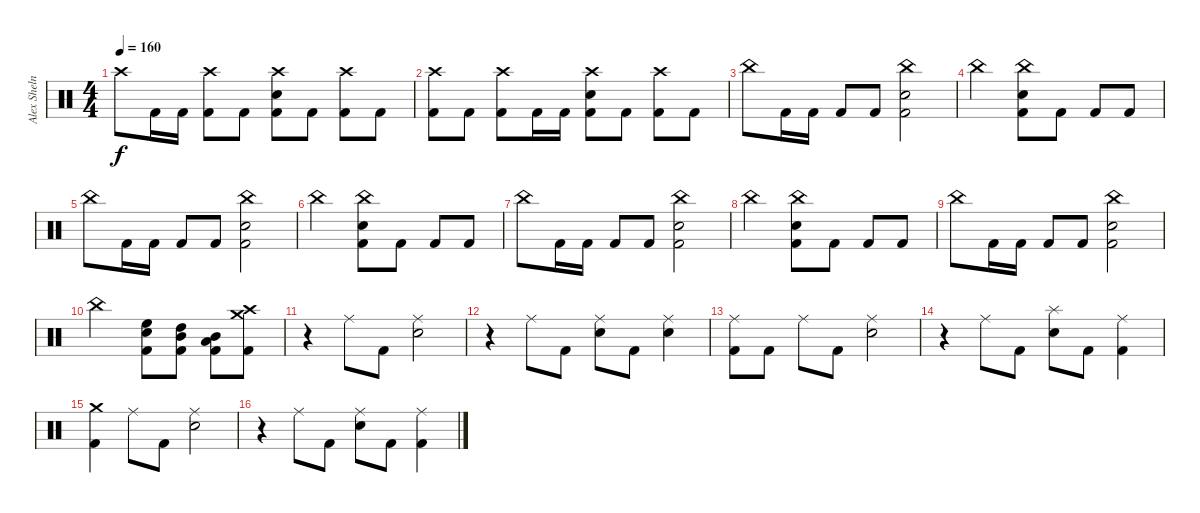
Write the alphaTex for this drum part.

\track ("Alex Shelnutt" "Alex Sheln") {instrument percussion}
\staff {score}
\articulation defaults
\ts (4 4)
\tempo 160
\clef neutral
\ks c "Crash high (hit)".8{dy f} "Kick (hit) 2".16 "Kick (hit) 2".16
("Crash high (hit)" "Kick (hit) 2").8 "Kick (hit) 2".8 ("Crash high (hit)" "Electric Snare (hit)" "Kick (hit) 2").8 "Kick (hit) 2".8 ("Crash high (hit)" "Kick (hit) 2").8 "Kick (hit) 2".8 |
("Crash high (hit)" "Kick (hit) 2").8 "Kick (hit) 2".8 ("Crash high (hit)" "Kick (hit) 2").8 "Kick (hit) 2".16 "Kick (hit) 2".16 ("Crash high (hit)" "Electric Snare (hit)" "Kick (hit) 2").8 "Kick (hit) 2".8 ("Crash high (hit)" "Kick (hit) 2").8 "Kick (hit) 2".8 |
"China (hit)".8 "Kick (hit) 2".16 "Kick (hit) 2".16 "Kick (hit) 2".8 "Kick (hit) 2".8 ("China (hit)" "Electric Snare (hit)" "Kick (hit) 2").2 |
"China (hit)".2 ("China (hit)" "Electric Snare (hit)" "Kick (hit) 2").8 "Kick (hit) 2".8 "Kick (hit) 2".8 "Kick (hit) 2".8 |
"China (hit)".8 "Kick (hit) 2".16 "Kick (hit) 2".16 "Kick (hit) 2".8 "Kick (hit) 2".8 ("China (hit)" "Electric Snare (hit)" "Kick (hit) 2").2 |
"China (hit)".2 ("China (hit)" "Electric Snare (hit)" "Kick (hit) 2").8 "Kick (hit) 2".8 "Kick (hit) 2".8 "Kick (hit) 2".8 |
"China (hit)".8 "Kick (hit) 2".16 "Kick (hit) 2".16 "Kick (hit) 2".8 "Kick (hit) 2".8 ("China (hit)" "Electric Snare (hit)" "Kick (hit) 2").2 |
"China (hit)".2 ("China (hit)" "Electric Snare (hit)" "Kick (hit) 2").8 "Kick (hit) 2".8 "Kick (hit) 2".8 "Kick (hit) 2".8 |
"China (hit)".8 "Kick (hit) 2".16 "Kick (hit) 2".16 "Kick (hit) 2".8 "Kick (hit) 2".8 ("China (hit)" "Electric Snare (hit)" "Kick (hit) 2").2 |
"China (hit)".2 ("High Floor Tom (hit)" "Electric Snare (hit)" "Kick (hit) 2").8 ("High Tom (hit)" "Mid Tom (hit)" "Kick (hit) 2").8 ("Mid Tom (hit)" "Low Tom (hit)" "Kick (hit) 2").8 ("Crash medium (hit)" "Crash high (hit)" "Kick (hit) 2").8 |
r.4 "Ride (middle)".8 "Kick (hit) 2".8 ("Ride (middle)" "Electric Snare (hit)").2 |
r.4 "Ride (middle)".8 "Kick (hit) 2".8 ("Ride (middle)" "Electric Snare (hit)").8 "Kick (hit) 2".8 ("Ride (middle)" "Electric Snare (hit)").4 |
("Ride (middle)" "Kick (hit) 2").8 "Kick (hit) 2".8 "Ride (middle)".8 "Kick (hit) 2".8 ("Ride (middle)" "Electric Snare (hit)").2 |
r.4 "Ride (middle)".8 "Kick (hit) 2".8 ("Splash (hit)" "Electric Snare (hit)").8 "Kick (hit) 2".8 ("Ride (middle)" "Kick (hit) 2").4 |
("Crash medium (hit)" "Kick (hit) 2").4 "Ride (middle)".8 "Kick (hit) 2".8 ("Ride (middle)" "Electric Snare (hit)").2 |
r.4 "Ride (middle)".8 "Kick (hit) 2".8 ("Ride (middle)" "Electric Snare (hit)").8 "Kick (hit) 2".8 ("Ride (middle)" "Kick (hit) 2").4
